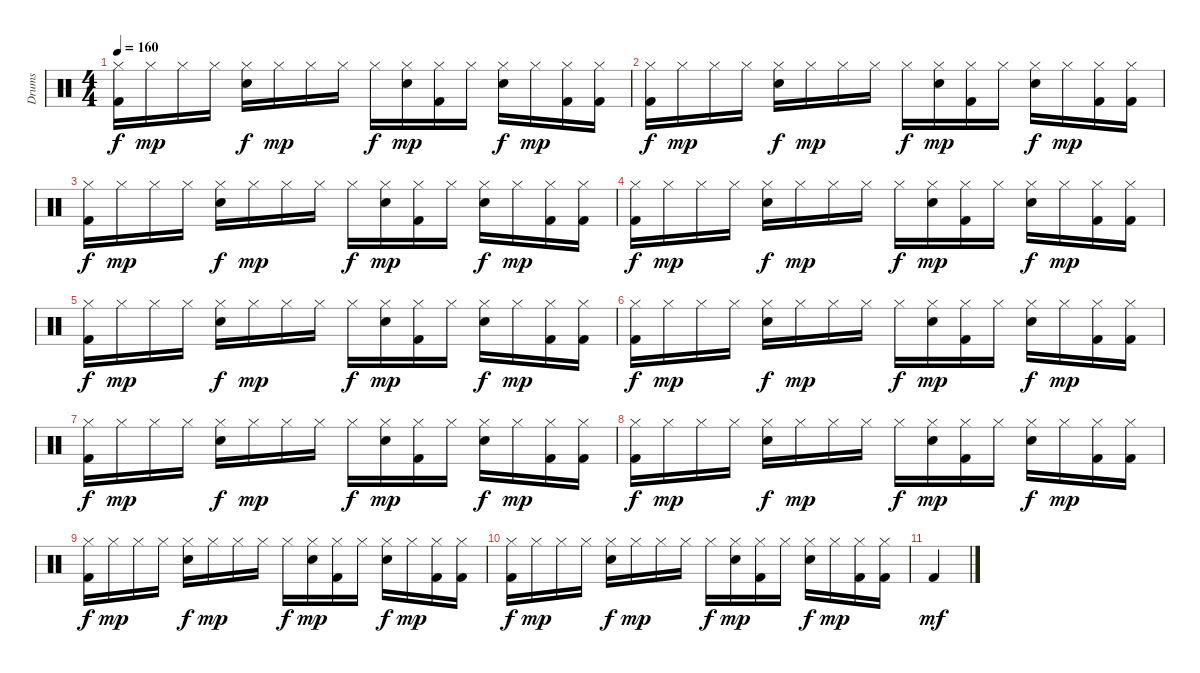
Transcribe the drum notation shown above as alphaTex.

\track ("Drums" "Drums") {instrument percussion}
\staff {score}
\articulation defaults
\ts (4 4)
\tempo 160
\clef neutral
\ks c
("Kick (hit) 2" "Hi-Hat (closed)").16{dy f} "Hi-Hat (closed)".16{dy mp} "Hi-Hat (closed)".16 "Hi-Hat (closed)".16 ("Snare (hit) 2" "Hi-Hat (closed)").16{dy f} "Hi-Hat (closed)".16{dy mp} "Hi-Hat (closed)".16 "Hi-Hat (closed)".16 "Hi-Hat (closed)".16{dy f} ("Snare (hit) 2" "Hi-Hat (closed)").16{dy mp} ("Kick (hit) 2" "Hi-Hat (closed)").16 "Hi-Hat (closed)".16 ("Snare (hit) 2" "Hi-Hat (closed)").16{dy f} "Hi-Hat (closed)".16{dy mp} ("Kick (hit) 2" "Hi-Hat (closed)").16 ("Kick (hit) 2" "Hi-Hat (closed)").16 |
("Kick (hit) 2" "Hi-Hat (closed)").16{dy f} "Hi-Hat (closed)".16{dy mp} "Hi-Hat (closed)".16 "Hi-Hat (closed)".16 ("Snare (hit) 2" "Hi-Hat (closed)").16{dy f} "Hi-Hat (closed)".16{dy mp} "Hi-Hat (closed)".16 "Hi-Hat (closed)".16 "Hi-Hat (closed)".16{dy f} ("Snare (hit) 2" "Hi-Hat (closed)").16{dy mp} ("Kick (hit) 2" "Hi-Hat (closed)").16 "Hi-Hat (closed)".16 ("Snare (hit) 2" "Hi-Hat (closed)").16{dy f} "Hi-Hat (closed)".16{dy mp} ("Kick (hit) 2" "Hi-Hat (closed)").16 ("Kick (hit) 2" "Hi-Hat (closed)").16 |
("Kick (hit) 2" "Hi-Hat (closed)").16{dy f} "Hi-Hat (closed)".16{dy mp} "Hi-Hat (closed)".16 "Hi-Hat (closed)".16 ("Snare (hit) 2" "Hi-Hat (closed)").16{dy f} "Hi-Hat (closed)".16{dy mp} "Hi-Hat (closed)".16 "Hi-Hat (closed)".16 "Hi-Hat (closed)".16{dy f} ("Snare (hit) 2" "Hi-Hat (closed)").16{dy mp} ("Kick (hit) 2" "Hi-Hat (closed)").16 "Hi-Hat (closed)".16 ("Snare (hit) 2" "Hi-Hat (closed)").16{dy f} "Hi-Hat (closed)".16{dy mp} ("Kick (hit) 2" "Hi-Hat (closed)").16 ("Kick (hit) 2" "Hi-Hat (closed)").16 |
("Kick (hit) 2" "Hi-Hat (closed)").16{dy f} "Hi-Hat (closed)".16{dy mp} "Hi-Hat (closed)".16 "Hi-Hat (closed)".16 ("Snare (hit) 2" "Hi-Hat (closed)").16{dy f} "Hi-Hat (closed)".16{dy mp} "Hi-Hat (closed)".16 "Hi-Hat (closed)".16 "Hi-Hat (closed)".16{dy f} ("Snare (hit) 2" "Hi-Hat (closed)").16{dy mp} ("Kick (hit) 2" "Hi-Hat (closed)").16 "Hi-Hat (closed)".16 ("Snare (hit) 2" "Hi-Hat (closed)").16{dy f} "Hi-Hat (closed)".16{dy mp} ("Kick (hit) 2" "Hi-Hat (closed)").16 ("Kick (hit) 2" "Hi-Hat (closed)").16 |
("Kick (hit) 2" "Hi-Hat (closed)").16{dy f} "Hi-Hat (closed)".16{dy mp} "Hi-Hat (closed)".16 "Hi-Hat (closed)".16 ("Snare (hit) 2" "Hi-Hat (closed)").16{dy f} "Hi-Hat (closed)".16{dy mp} "Hi-Hat (closed)".16 "Hi-Hat (closed)".16 "Hi-Hat (closed)".16{dy f} ("Snare (hit) 2" "Hi-Hat (closed)").16{dy mp} ("Kick (hit) 2" "Hi-Hat (closed)").16 "Hi-Hat (closed)".16 ("Snare (hit) 2" "Hi-Hat (closed)").16{dy f} "Hi-Hat (closed)".16{dy mp} ("Kick (hit) 2" "Hi-Hat (closed)").16 ("Kick (hit) 2" "Hi-Hat (closed)").16 |
("Kick (hit) 2" "Hi-Hat (closed)").16{dy f} "Hi-Hat (closed)".16{dy mp} "Hi-Hat (closed)".16 "Hi-Hat (closed)".16 ("Snare (hit) 2" "Hi-Hat (closed)").16{dy f} "Hi-Hat (closed)".16{dy mp} "Hi-Hat (closed)".16 "Hi-Hat (closed)".16 "Hi-Hat (closed)".16{dy f} ("Snare (hit) 2" "Hi-Hat (closed)").16{dy mp} ("Kick (hit) 2" "Hi-Hat (closed)").16 "Hi-Hat (closed)".16 ("Snare (hit) 2" "Hi-Hat (closed)").16{dy f} "Hi-Hat (closed)".16{dy mp} ("Kick (hit) 2" "Hi-Hat (closed)").16 ("Kick (hit) 2" "Hi-Hat (closed)").16 |
("Kick (hit) 2" "Hi-Hat (closed)").16{dy f} "Hi-Hat (closed)".16{dy mp} "Hi-Hat (closed)".16 "Hi-Hat (closed)".16 ("Snare (hit) 2" "Hi-Hat (closed)").16{dy f} "Hi-Hat (closed)".16{dy mp} "Hi-Hat (closed)".16 "Hi-Hat (closed)".16 "Hi-Hat (closed)".16{dy f} ("Snare (hit) 2" "Hi-Hat (closed)").16{dy mp} ("Kick (hit) 2" "Hi-Hat (closed)").16 "Hi-Hat (closed)".16 ("Snare (hit) 2" "Hi-Hat (closed)").16{dy f} "Hi-Hat (closed)".16{dy mp} ("Kick (hit) 2" "Hi-Hat (closed)").16 ("Kick (hit) 2" "Hi-Hat (closed)").16 |
("Kick (hit) 2" "Hi-Hat (closed)").16{dy f} "Hi-Hat (closed)".16{dy mp} "Hi-Hat (closed)".16 "Hi-Hat (closed)".16 ("Snare (hit) 2" "Hi-Hat (closed)").16{dy f} "Hi-Hat (closed)".16{dy mp} "Hi-Hat (closed)".16 "Hi-Hat (closed)".16 "Hi-Hat (closed)".16{dy f} ("Snare (hit) 2" "Hi-Hat (closed)").16{dy mp} ("Kick (hit) 2" "Hi-Hat (closed)").16 "Hi-Hat (closed)".16 ("Snare (hit) 2" "Hi-Hat (closed)").16{dy f} "Hi-Hat (closed)".16{dy mp} ("Kick (hit) 2" "Hi-Hat (closed)").16 ("Kick (hit) 2" "Hi-Hat (closed)").16 |
("Kick (hit) 2" "Hi-Hat (closed)").16{dy f} "Hi-Hat (closed)".16{dy mp} "Hi-Hat (closed)".16 "Hi-Hat (closed)".16 ("Snare (hit) 2" "Hi-Hat (closed)").16{dy f} "Hi-Hat (closed)".16{dy mp} "Hi-Hat (closed)".16 "Hi-Hat (closed)".16 "Hi-Hat (closed)".16{dy f} ("Snare (hit) 2" "Hi-Hat (closed)").16{dy mp} ("Kick (hit) 2" "Hi-Hat (closed)").16 "Hi-Hat (closed)".16 ("Snare (hit) 2" "Hi-Hat (closed)").16{dy f} "Hi-Hat (closed)".16{dy mp} ("Kick (hit) 2" "Hi-Hat (closed)").16 ("Kick (hit) 2" "Hi-Hat (closed)").16 |
("Kick (hit) 2" "Hi-Hat (closed)").16{dy f} "Hi-Hat (closed)".16{dy mp} "Hi-Hat (closed)".16 "Hi-Hat (closed)".16 ("Snare (hit) 2" "Hi-Hat (closed)").16{dy f} "Hi-Hat (closed)".16{dy mp} "Hi-Hat (closed)".16 "Hi-Hat (closed)".16 "Hi-Hat (closed)".16{dy f} ("Snare (hit) 2" "Hi-Hat (closed)").16{dy mp} ("Kick (hit) 2" "Hi-Hat (closed)").16 "Hi-Hat (closed)".16 ("Snare (hit) 2" "Hi-Hat (closed)").16{dy f} "Hi-Hat (closed)".16{dy mp} ("Kick (hit) 2" "Hi-Hat (closed)").16 ("Kick (hit) 2" "Hi-Hat (closed)").16 |
"Kick (hit) 2".4{dy mf}
